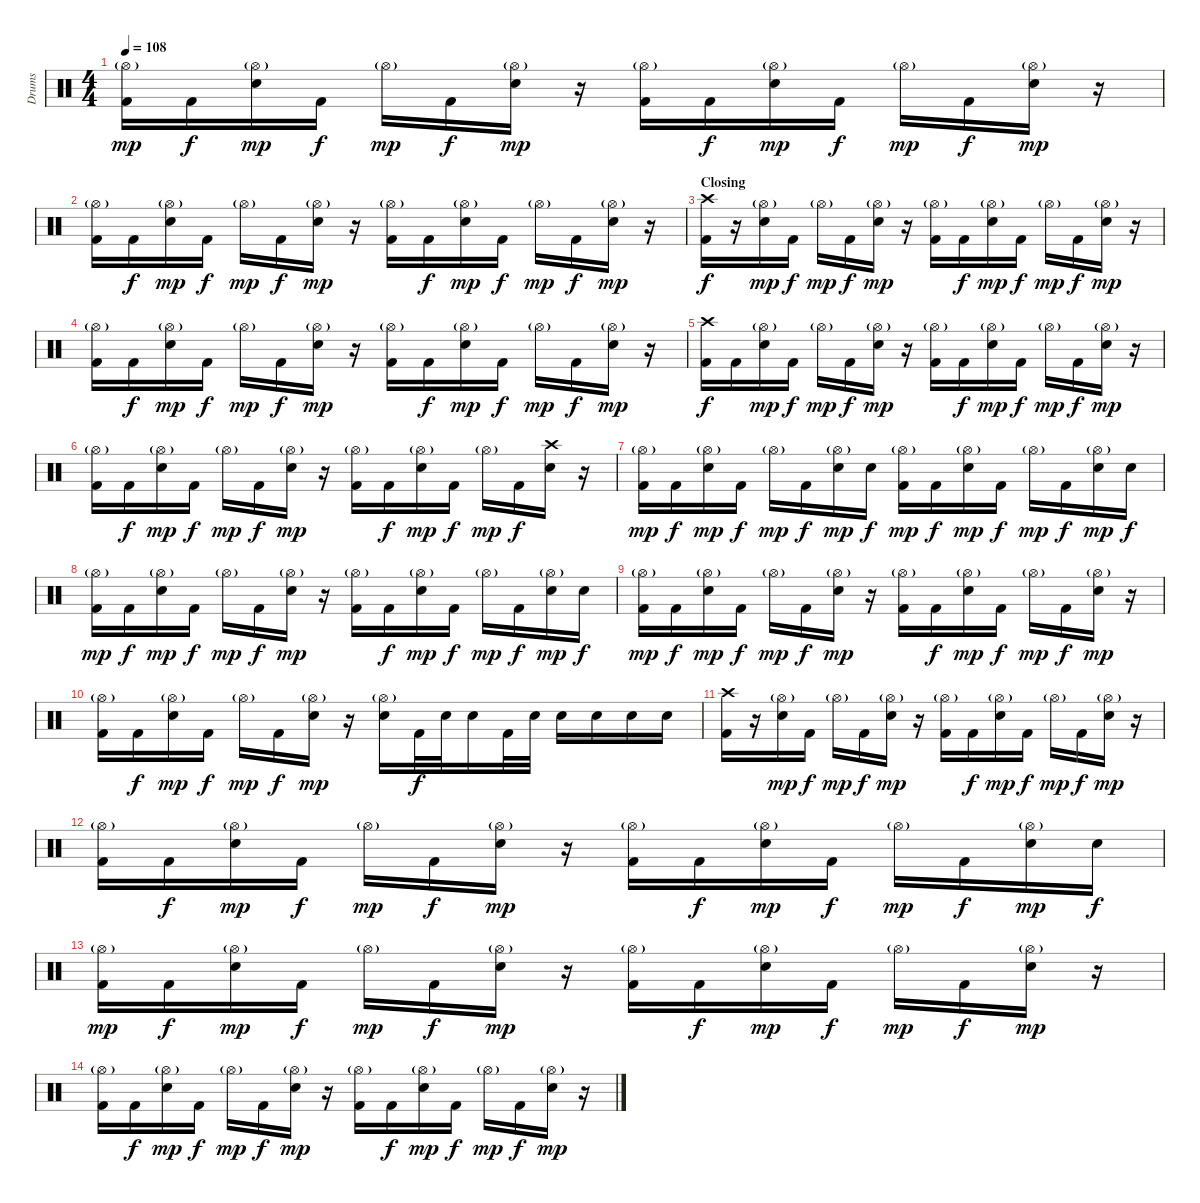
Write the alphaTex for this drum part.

\track ("Drums" "Drums") {instrument percussion}
\staff {score}
\articulation defaults
\ts (4 4)
\tempo 108
\clef neutral
\ks c
("Hi-Hat (open)"{g} "Kick (hit) 2").16{dy mp} "Kick (hit) 2".16{dy f} ("Hi-Hat (open)"{g} "Electric Snare (hit)").16{dy mp} "Kick (hit) 2".16{dy f} "Hi-Hat (open)"{g}.16{dy mp} "Kick (hit) 2".16{dy f} ("Hi-Hat (open)"{g} "Electric Snare (hit)").16{dy mp} r.16 ("Hi-Hat (open)"{g} "Kick (hit) 2").16 "Kick (hit) 2".16{dy f} ("Hi-Hat (open)"{g} "Electric Snare (hit)").16{dy mp} "Kick (hit) 2".16{dy f} "Hi-Hat (open)"{g}.16{dy mp} "Kick (hit) 2".16{dy f} ("Hi-Hat (open)"{g} "Electric Snare (hit)").16{dy mp} r.16 |
("Hi-Hat (open)"{g} "Kick (hit) 2").16 "Kick (hit) 2".16{dy f} ("Hi-Hat (open)"{g} "Electric Snare (hit)").16{dy mp} "Kick (hit) 2".16{dy f} "Hi-Hat (open)"{g}.16{dy mp} "Kick (hit) 2".16{dy f} ("Hi-Hat (open)"{g} "Electric Snare (hit)").16{dy mp} r.16 ("Hi-Hat (open)"{g} "Kick (hit) 2").16 "Kick (hit) 2".16{dy f} ("Hi-Hat (open)"{g} "Electric Snare (hit)").16{dy mp} "Kick (hit) 2".16{dy f} "Hi-Hat (open)"{g}.16{dy mp} "Kick (hit) 2".16{dy f} ("Hi-Hat (open)"{g} "Electric Snare (hit)").16{dy mp} r.16 |
\section ("" "Closing")
("Crash high (hit)" "Kick (hit) 2").16{dy f} r.16 ("Hi-Hat (open)"{g} "Electric Snare (hit)").16{dy mp} "Kick (hit) 2".16{dy f} "Hi-Hat (open)"{g}.16{dy mp} "Kick (hit) 2".16{dy f} ("Hi-Hat (open)"{g} "Electric Snare (hit)").16{dy mp} r.16 ("Hi-Hat (open)"{g} "Kick (hit) 2").16 "Kick (hit) 2".16{dy f} ("Hi-Hat (open)"{g} "Electric Snare (hit)").16{dy mp} "Kick (hit) 2".16{dy f} "Hi-Hat (open)"{g}.16{dy mp} "Kick (hit) 2".16{dy f} ("Hi-Hat (open)"{g} "Electric Snare (hit)").16{dy mp} r.16 |
("Hi-Hat (open)"{g} "Kick (hit) 2").16 "Kick (hit) 2".16{dy f} ("Hi-Hat (open)"{g} "Electric Snare (hit)").16{dy mp} "Kick (hit) 2".16{dy f} "Hi-Hat (open)"{g}.16{dy mp} "Kick (hit) 2".16{dy f} ("Hi-Hat (open)"{g} "Electric Snare (hit)").16{dy mp} r.16 ("Hi-Hat (open)"{g} "Kick (hit) 2").16 "Kick (hit) 2".16{dy f} ("Hi-Hat (open)"{g} "Electric Snare (hit)").16{dy mp} "Kick (hit) 2".16{dy f} "Hi-Hat (open)"{g}.16{dy mp} "Kick (hit) 2".16{dy f} ("Hi-Hat (open)"{g} "Electric Snare (hit)").16{dy mp} r.16 |
("Crash high (hit)" "Kick (hit) 2").16{dy f} "Kick (hit) 2".16 ("Hi-Hat (open)"{g} "Electric Snare (hit)").16{dy mp} "Kick (hit) 2".16{dy f} "Hi-Hat (open)"{g}.16{dy mp} "Kick (hit) 2".16{dy f} ("Hi-Hat (open)"{g} "Electric Snare (hit)").16{dy mp} r.16 ("Hi-Hat (open)"{g} "Kick (hit) 2").16 "Kick (hit) 2".16{dy f} ("Hi-Hat (open)"{g} "Electric Snare (hit)").16{dy mp} "Kick (hit) 2".16{dy f} "Hi-Hat (open)"{g}.16{dy mp} "Kick (hit) 2".16{dy f} ("Hi-Hat (open)"{g} "Electric Snare (hit)").16{dy mp} r.16 |
("Hi-Hat (open)"{g} "Kick (hit) 2").16 "Kick (hit) 2".16{dy f} ("Hi-Hat (open)"{g} "Electric Snare (hit)").16{dy mp} "Kick (hit) 2".16{dy f} "Hi-Hat (open)"{g}.16{dy mp} "Kick (hit) 2".16{dy f} ("Hi-Hat (open)"{g} "Electric Snare (hit)").16{dy mp} r.16 ("Hi-Hat (open)"{g} "Kick (hit) 2").16 "Kick (hit) 2".16{dy f} ("Hi-Hat (open)"{g} "Electric Snare (hit)").16{dy mp} "Kick (hit) 2".16{dy f} "Hi-Hat (open)"{g}.16{dy mp} "Kick (hit) 2".16{dy f} ("Crash high (hit)" "Electric Snare (hit)").16 r.16 |
("Hi-Hat (open)"{g} "Kick (hit) 2").16{dy mp} "Kick (hit) 2".16{dy f} ("Hi-Hat (open)"{g} "Electric Snare (hit)").16{dy mp} "Kick (hit) 2".16{dy f} "Hi-Hat (open)"{g}.16{dy mp} "Kick (hit) 2".16{dy f} ("Hi-Hat (open)"{g} "Electric Snare (hit)").16{dy mp} "Electric Snare (hit)".16{dy f} ("Hi-Hat (open)"{g} "Kick (hit) 2").16{dy mp} "Kick (hit) 2".16{dy f} ("Hi-Hat (open)"{g} "Electric Snare (hit)").16{dy mp} "Kick (hit) 2".16{dy f} "Hi-Hat (open)"{g}.16{dy mp} "Kick (hit) 2".16{dy f} ("Hi-Hat (open)"{g} "Electric Snare (hit)").16{dy mp} "Electric Snare (hit)".16{dy f} |
("Hi-Hat (open)"{g} "Kick (hit) 2").16{dy mp} "Kick (hit) 2".16{dy f} ("Hi-Hat (open)"{g} "Electric Snare (hit)").16{dy mp} "Kick (hit) 2".16{dy f} "Hi-Hat (open)"{g}.16{dy mp} "Kick (hit) 2".16{dy f} ("Hi-Hat (open)"{g} "Electric Snare (hit)").16{dy mp} r.16 ("Hi-Hat (open)"{g} "Kick (hit) 2").16 "Kick (hit) 2".16{dy f} ("Hi-Hat (open)"{g} "Electric Snare (hit)").16{dy mp} "Kick (hit) 2".16{dy f} "Hi-Hat (open)"{g}.16{dy mp} "Kick (hit) 2".16{dy f} ("Hi-Hat (open)"{g} "Electric Snare (hit)").16{dy mp} "Electric Snare (hit)".16{dy f} |
("Hi-Hat (open)"{g} "Kick (hit) 2").16{dy mp} "Kick (hit) 2".16{dy f} ("Hi-Hat (open)"{g} "Electric Snare (hit)").16{dy mp} "Kick (hit) 2".16{dy f} "Hi-Hat (open)"{g}.16{dy mp} "Kick (hit) 2".16{dy f} ("Hi-Hat (open)"{g} "Electric Snare (hit)").16{dy mp} r.16 ("Hi-Hat (open)"{g} "Kick (hit) 2").16 "Kick (hit) 2".16{dy f} ("Hi-Hat (open)"{g} "Electric Snare (hit)").16{dy mp} "Kick (hit) 2".16{dy f} "Hi-Hat (open)"{g}.16{dy mp} "Kick (hit) 2".16{dy f} ("Hi-Hat (open)"{g} "Electric Snare (hit)").16{dy mp} r.16 |
("Hi-Hat (open)"{g} "Kick (hit) 2").16 "Kick (hit) 2".16{dy f} ("Hi-Hat (open)"{g} "Electric Snare (hit)").16{dy mp} "Kick (hit) 2".16{dy f} "Hi-Hat (open)"{g}.16{dy mp} "Kick (hit) 2".16{dy f} ("Hi-Hat (open)"{g} "Electric Snare (hit)").16{dy mp} r.16 ("Hi-Hat (open)"{g} "Electric Snare (hit)").16 "Kick (hit) 2".32{dy f} "Electric Snare (hit)".32 "Electric Snare (hit)".16 "Kick (hit) 2".32 "Electric Snare (hit)".32 "Electric Snare (hit)".16 "Electric Snare (hit)".16 "Electric Snare (hit)".16 "Electric Snare (hit)".16 |
("Crash high (hit)" "Kick (hit) 2").16 r.16 ("Hi-Hat (open)"{g} "Electric Snare (hit)").16{dy mp} "Kick (hit) 2".16{dy f} "Hi-Hat (open)"{g}.16{dy mp} "Kick (hit) 2".16{dy f} ("Hi-Hat (open)"{g} "Electric Snare (hit)").16{dy mp} r.16 ("Hi-Hat (open)"{g} "Kick (hit) 2").16 "Kick (hit) 2".16{dy f} ("Hi-Hat (open)"{g} "Electric Snare (hit)").16{dy mp} "Kick (hit) 2".16{dy f} "Hi-Hat (open)"{g}.16{dy mp} "Kick (hit) 2".16{dy f} ("Hi-Hat (open)"{g} "Electric Snare (hit)").16{dy mp} r.16 |
("Hi-Hat (open)"{g} "Kick (hit) 2").16 "Kick (hit) 2".16{dy f} ("Hi-Hat (open)"{g} "Electric Snare (hit)").16{dy mp} "Kick (hit) 2".16{dy f} "Hi-Hat (open)"{g}.16{dy mp} "Kick (hit) 2".16{dy f} ("Hi-Hat (open)"{g} "Electric Snare (hit)").16{dy mp} r.16 ("Hi-Hat (open)"{g} "Kick (hit) 2").16 "Kick (hit) 2".16{dy f} ("Hi-Hat (open)"{g} "Electric Snare (hit)").16{dy mp} "Kick (hit) 2".16{dy f} "Hi-Hat (open)"{g}.16{dy mp} "Kick (hit) 2".16{dy f} ("Hi-Hat (open)"{g} "Electric Snare (hit)").16{dy mp} "Electric Snare (hit)".16{dy f} |
("Hi-Hat (open)"{g} "Kick (hit) 2").16{dy mp} "Kick (hit) 2".16{dy f} ("Hi-Hat (open)"{g} "Electric Snare (hit)").16{dy mp} "Kick (hit) 2".16{dy f} "Hi-Hat (open)"{g}.16{dy mp} "Kick (hit) 2".16{dy f} ("Hi-Hat (open)"{g} "Electric Snare (hit)").16{dy mp} r.16 ("Hi-Hat (open)"{g} "Kick (hit) 2").16 "Kick (hit) 2".16{dy f} ("Hi-Hat (open)"{g} "Electric Snare (hit)").16{dy mp} "Kick (hit) 2".16{dy f} "Hi-Hat (open)"{g}.16{dy mp} "Kick (hit) 2".16{dy f} ("Hi-Hat (open)"{g} "Electric Snare (hit)").16{dy mp} r.16 |
("Hi-Hat (open)"{g} "Kick (hit) 2").16 "Kick (hit) 2".16{dy f} ("Hi-Hat (open)"{g} "Electric Snare (hit)").16{dy mp} "Kick (hit) 2".16{dy f} "Hi-Hat (open)"{g}.16{dy mp} "Kick (hit) 2".16{dy f} ("Hi-Hat (open)"{g} "Electric Snare (hit)").16{dy mp} r.16 ("Hi-Hat (open)"{g} "Kick (hit) 2").16 "Kick (hit) 2".16{dy f} ("Hi-Hat (open)"{g} "Electric Snare (hit)").16{dy mp} "Kick (hit) 2".16{dy f} "Hi-Hat (open)"{g}.16{dy mp} "Kick (hit) 2".16{dy f} ("Hi-Hat (open)"{g} "Electric Snare (hit)").16{dy mp} r.16
